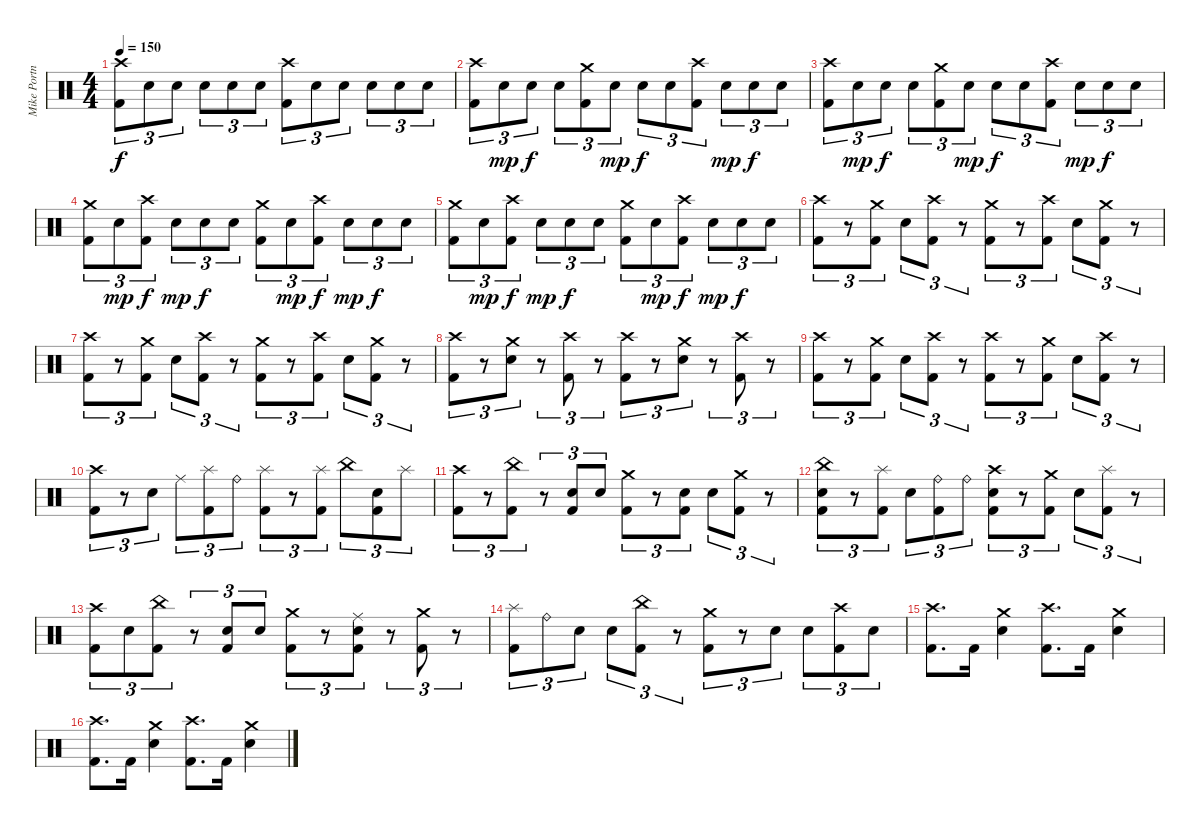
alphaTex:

\track ("Mike Portnoy" "Mike Portn") {instrument percussion}
\staff {score}
\articulation defaults
\ts (4 4)
\tempo 150
\clef neutral
\ks c
("Crash high (hit)" "Kick (hit) 2").8{tu (3 2) dy f} "Electric Snare (hit)".8{tu (3 2)} "Electric Snare (hit)".8{tu (3 2)} "Electric Snare (hit)".8{tu (3 2)} "Electric Snare (hit)".8{tu (3 2)} "Electric Snare (hit)".8{tu (3 2)} ("Crash high (hit)" "Kick (hit) 2").8{tu (3 2)} "Electric Snare (hit)".8{tu (3 2)} "Electric Snare (hit)".8{tu (3 2)} "Electric Snare (hit)".8{tu (3 2)} "Electric Snare (hit)".8{tu (3 2)} "Electric Snare (hit)".8{tu (3 2)} |
("Crash high (hit)" "Kick (hit) 2").8{tu (3 2)} "Electric Snare (hit)".8{tu (3 2) dy mp} "Electric Snare (hit)".8{tu (3 2) dy f} "Electric Snare (hit)".8{tu (3 2)} ("Crash medium (hit)" "Kick (hit) 2").8{tu (3 2)} "Electric Snare (hit)".8{tu (3 2) dy mp} "Electric Snare (hit)".8{tu (3 2) dy f} "Electric Snare (hit)".8{tu (3 2)} ("Crash high (hit)" "Kick (hit) 2").8{tu (3 2)} "Electric Snare (hit)".8{tu (3 2) dy mp} "Electric Snare (hit)".8{tu (3 2) dy f} "Electric Snare (hit)".8{tu (3 2)} |
("Crash high (hit)" "Kick (hit) 2").8{tu (3 2)} "Electric Snare (hit)".8{tu (3 2) dy mp} "Electric Snare (hit)".8{tu (3 2) dy f} "Electric Snare (hit)".8{tu (3 2)} ("Crash medium (hit)" "Kick (hit) 2").8{tu (3 2)} "Electric Snare (hit)".8{tu (3 2) dy mp} "Electric Snare (hit)".8{tu (3 2) dy f} "Electric Snare (hit)".8{tu (3 2)} ("Crash high (hit)" "Kick (hit) 2").8{tu (3 2)} "Electric Snare (hit)".8{tu (3 2) dy mp} "Electric Snare (hit)".8{tu (3 2) dy f} "Electric Snare (hit)".8{tu (3 2)} |
("Crash medium (hit)" "Kick (hit) 2").8{tu (3 2)} "Electric Snare (hit)".8{tu (3 2) dy mp} ("Crash high (hit)" "Kick (hit) 2").8{tu (3 2) dy f} "Electric Snare (hit)".8{tu (3 2) dy mp} "Electric Snare (hit)".8{tu (3 2) dy f} "Electric Snare (hit)".8{tu (3 2)} ("Crash medium (hit)" "Kick (hit) 2").8{tu (3 2)} "Electric Snare (hit)".8{tu (3 2) dy mp} ("Crash high (hit)" "Kick (hit) 2").8{tu (3 2) dy f} "Electric Snare (hit)".8{tu (3 2) dy mp} "Electric Snare (hit)".8{tu (3 2) dy f} "Electric Snare (hit)".8{tu (3 2)} |
("Crash medium (hit)" "Kick (hit) 2").8{tu (3 2)} "Electric Snare (hit)".8{tu (3 2) dy mp} ("Crash high (hit)" "Kick (hit) 2").8{tu (3 2) dy f} "Electric Snare (hit)".8{tu (3 2) dy mp} "Electric Snare (hit)".8{tu (3 2) dy f} "Electric Snare (hit)".8{tu (3 2)} ("Crash medium (hit)" "Kick (hit) 2").8{tu (3 2)} "Electric Snare (hit)".8{tu (3 2) dy mp} ("Crash high (hit)" "Kick (hit) 2").8{tu (3 2) dy f} "Electric Snare (hit)".8{tu (3 2) dy mp} "Electric Snare (hit)".8{tu (3 2) dy f} "Electric Snare (hit)".8{tu (3 2)} |
("Crash high (hit)" "Kick (hit) 2").8{tu (3 2)} r.8{tu (3 2)} ("Crash medium (hit)" "Kick (hit) 2").8{tu (3 2)} "Electric Snare (hit)".8{tu (3 2)} ("Crash high (hit)" "Kick (hit) 2").8{tu (3 2)} r.8{tu (3 2)} ("Crash medium (hit)" "Kick (hit) 2").8{tu (3 2)} r.8{tu (3 2)} ("Crash high (hit)" "Kick (hit) 2").8{tu (3 2)} "Electric Snare (hit)".8{tu (3 2)} ("Crash medium (hit)" "Kick (hit) 2").8{tu (3 2)} r.8{tu (3 2)} |
("Crash high (hit)" "Kick (hit) 2").8{tu (3 2)} r.8{tu (3 2)} ("Crash medium (hit)" "Kick (hit) 2").8{tu (3 2)} "Electric Snare (hit)".8{tu (3 2)} ("Crash high (hit)" "Kick (hit) 2").8{tu (3 2)} r.8{tu (3 2)} ("Crash medium (hit)" "Kick (hit) 2").8{tu (3 2)} r.8{tu (3 2)} ("Crash high (hit)" "Kick (hit) 2").8{tu (3 2)} "Electric Snare (hit)".8{tu (3 2)} ("Crash medium (hit)" "Kick (hit) 2").8{tu (3 2)} r.8{tu (3 2)} |
("Crash high (hit)" "Kick (hit) 2").8{tu (3 2)} r.8{tu (3 2)} ("Crash medium (hit)" "Electric Snare (hit)").8{tu (3 2)} r.8{tu (3 2)} ("Crash high (hit)" "Kick (hit) 2").8{tu (3 2)} r.8{tu (3 2)} ("Crash high (hit)" "Kick (hit) 2").8{tu (3 2)} r.8{tu (3 2)} ("Crash medium (hit)" "Electric Snare (hit)").8{tu (3 2)} r.8{tu (3 2)} ("Crash high (hit)" "Kick (hit) 2").8{tu (3 2)} r.8{tu (3 2)} |
("Crash high (hit)" "Kick (hit) 2").8{tu (3 2)} r.8{tu (3 2)} ("Crash medium (hit)" "Kick (hit) 2").8{tu (3 2)} "Electric Snare (hit)".8{tu (3 2)} ("Crash high (hit)" "Kick (hit) 2").8{tu (3 2)} r.8{tu (3 2)} ("Crash high (hit)" "Kick (hit) 2").8{tu (3 2)} r.8{tu (3 2)} ("Crash medium (hit)" "Kick (hit) 2").8{tu (3 2)} "Electric Snare (hit)".8{tu (3 2)} ("Crash high (hit)" "Kick (hit) 2").8{tu (3 2)} r.8{tu (3 2)} |
("Crash high (hit)" "Kick (hit) 2").8{tu (3 2)} r.8{tu (3 2)} "Electric Snare (hit)".8{tu (3 2)} "Ride (middle)".8{tu (3 2)} ("Splash (hit)" "Kick (hit) 2").8{tu (3 2)} "Ride (bell)".8{tu (3 2)} ("Splash (hit)" "Kick (hit) 2").8{tu (3 2)} r.8{tu (3 2)} ("Splash (hit)" "Kick (hit) 2").8{tu (3 2)} "China (hit)".8{tu (3 2)} ("Electric Snare (hit)" "Kick (hit) 2").8{tu (3 2)} "Splash (hit)".8{tu (3 2)} |
("Crash high (hit)" "Kick (hit) 2").8{tu (3 2)} r.8{tu (3 2)} ("China (hit)" "Kick (hit) 2").8{tu (3 2)} r.8{tu (3 2)} ("Electric Snare (hit)" "Kick (hit) 2").8{tu (3 2)} "Electric Snare (hit)".8{tu (3 2)} ("Crash medium (hit)" "Kick (hit) 2").8{tu (3 2)} r.8{tu (3 2)} ("Electric Snare (hit)" "Kick (hit) 2").8{tu (3 2)} "Electric Snare (hit)".8{tu (3 2)} ("Crash medium (hit)" "Kick (hit) 2").8{tu (3 2)} r.8{tu (3 2)} |
("China (hit)" "Electric Snare (hit)" "Kick (hit) 2").8{tu (3 2)} r.8{tu (3 2)} ("Splash (hit)" "Kick (hit) 2").8{tu (3 2)} "Electric Snare (hit)".8{tu (3 2)} ("Ride (bell)" "Kick (hit) 2").8{tu (3 2)} "Ride (bell)".8{tu (3 2)} ("Crash high (hit)" "Electric Snare (hit)" "Kick (hit) 2").8{tu (3 2)} r.8{tu (3 2)} ("Crash medium (hit)" "Kick (hit) 2").8{tu (3 2)} "Electric Snare (hit)".8{tu (3 2)} ("Splash (hit)" "Kick (hit) 2").8{tu (3 2)} r.8{tu (3 2)} |
("Crash high (hit)" "Kick (hit) 2").8{tu (3 2)} "Electric Snare (hit)".8{tu (3 2)} ("China (hit)" "Kick (hit) 2").8{tu (3 2)} r.8{tu (3 2)} ("Electric Snare (hit)" "Kick (hit) 2").8{tu (3 2)} "Electric Snare (hit)".8{tu (3 2)} ("Crash medium (hit)" "Kick (hit) 2").8{tu (3 2)} r.8{tu (3 2)} ("Ride (middle)" "Electric Snare (hit)" "Kick (hit) 2").8{tu (3 2)} r.8{tu (3 2)} ("Crash medium (hit)" "Kick (hit) 2").8{tu (3 2)} r.8{tu (3 2)} |
("Splash (hit)" "Kick (hit) 2").8{tu (3 2)} "Ride (bell)".8{tu (3 2)} "Electric Snare (hit)".8{tu (3 2)} "Electric Snare (hit)".8{tu (3 2)} ("China (hit)" "Kick (hit) 2").8{tu (3 2)} r.8{tu (3 2)} ("Crash medium (hit)" "Kick (hit) 2").8{tu (3 2)} r.8{tu (3 2)} "Electric Snare (hit)".8{tu (3 2)} "Electric Snare (hit)".8{tu (3 2)} ("Crash high (hit)" "Kick (hit) 2").8{tu (3 2)} "Electric Snare (hit)".8{tu (3 2)} |
("Crash high (hit)" "Kick (hit) 2").8{d} "Kick (hit) 2".16 ("Crash medium (hit)" "Electric Snare (hit)").4 ("Crash high (hit)" "Kick (hit) 2").8{d} "Kick (hit) 2".16 ("Crash medium (hit)" "Electric Snare (hit)").4 |
("Crash high (hit)" "Kick (hit) 2").8{d} "Kick (hit) 2".16 ("Crash medium (hit)" "Electric Snare (hit)").4 ("Crash high (hit)" "Kick (hit) 2").8{d} "Kick (hit) 2".16 ("Crash medium (hit)" "Electric Snare (hit)").4
